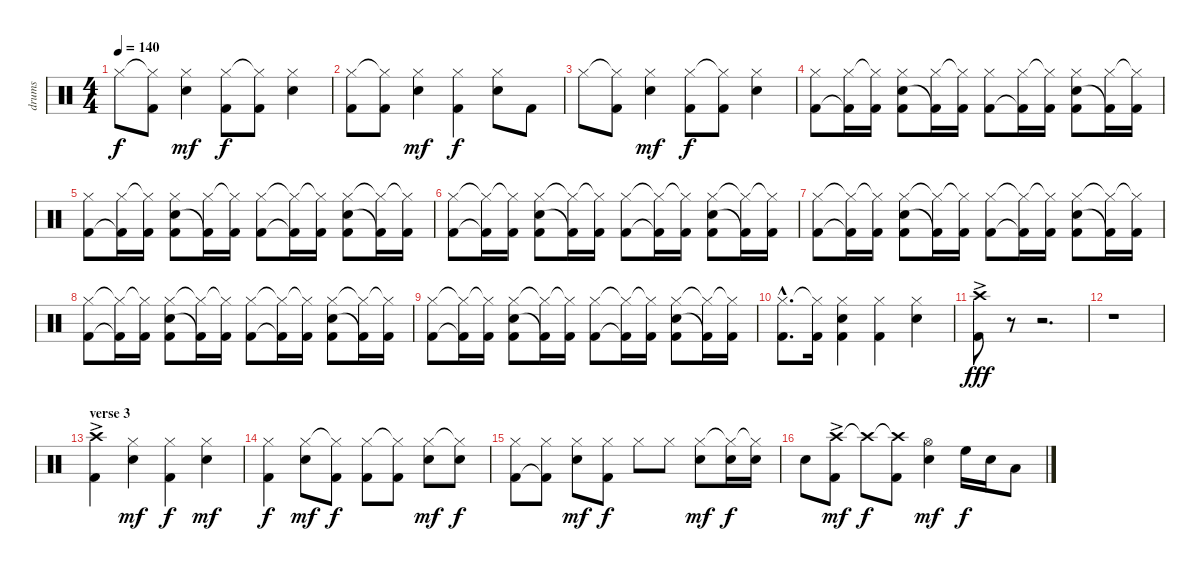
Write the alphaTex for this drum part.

\track ("drums" "drums") {instrument percussion}
\staff {score}
\articulation defaults
\ts (4 4)
\tempo 140
\clef neutral
\ks c "Hi-Hat (closed)".8{dy f}
("Hi-Hat (closed)"{t} "Kick (hit) 2").8 ("Hi-Hat (closed)" "Snare (hit) 2").4{dy mf} ("Hi-Hat (closed)" "Kick (hit) 2").8{dy f} ("Hi-Hat (closed)"{t} "Kick (hit) 2").8 ("Hi-Hat (closed)" "Snare (hit) 2").4 |
("Hi-Hat (closed)" "Kick (hit) 2").8 ("Hi-Hat (closed)"{t} "Kick (hit) 2").8 ("Hi-Hat (closed)" "Snare (hit) 2").4{dy mf} ("Hi-Hat (closed)" "Kick (hit) 2").4{dy f} ("Hi-Hat (closed)" "Snare (hit) 2").8 "Kick (hit) 2".8 |
"Hi-Hat (closed)".8 ("Hi-Hat (closed)"{t} "Kick (hit) 2").8 ("Hi-Hat (closed)" "Snare (hit) 2").4{dy mf} ("Hi-Hat (closed)" "Kick (hit) 2").8{dy f} ("Hi-Hat (closed)"{t} "Kick (hit) 2").8 ("Hi-Hat (closed)" "Snare (hit) 2").4 |
("Hi-Hat (closed)" "Kick (hit) 2").8 ("Hi-Hat (closed)" "Kick (hit) 2"{t}).16 ("Hi-Hat (closed)"{t} "Kick (hit) 2").16 ("Hi-Hat (closed)" "Snare (hit) 2" "Kick (hit) 2").8 ("Hi-Hat (closed)" "Kick (hit) 2"{t}).16 ("Hi-Hat (closed)"{t} "Kick (hit) 2").16 ("Hi-Hat (closed)" "Kick (hit) 2").8 ("Hi-Hat (closed)" "Kick (hit) 2"{t}).16 ("Hi-Hat (closed)"{t} "Kick (hit) 2").16 ("Hi-Hat (closed)" "Snare (hit) 2" "Kick (hit) 2").8 ("Hi-Hat (closed)" "Kick (hit) 2"{t}).16 ("Hi-Hat (closed)"{t} "Kick (hit) 2").16 |
("Hi-Hat (closed)" "Kick (hit) 2").8 ("Hi-Hat (closed)" "Kick (hit) 2"{t}).16 ("Hi-Hat (closed)"{t} "Kick (hit) 2").16 ("Hi-Hat (closed)" "Snare (hit) 2" "Kick (hit) 2").8 ("Hi-Hat (closed)" "Kick (hit) 2"{t}).16 ("Hi-Hat (closed)"{t} "Kick (hit) 2").16 ("Hi-Hat (closed)" "Kick (hit) 2").8 ("Hi-Hat (closed)"{t} "Kick (hit) 2"{t}).16 ("Hi-Hat (closed)"{t} "Kick (hit) 2").16 ("Hi-Hat (closed)" "Snare (hit) 2" "Kick (hit) 2").8 ("Hi-Hat (closed)"{t} "Kick (hit) 2"{t}).16 ("Hi-Hat (closed)"{t} "Kick (hit) 2").16 |
("Hi-Hat (closed)" "Kick (hit) 2").8 ("Hi-Hat (closed)"{t} "Kick (hit) 2"{t}).16 ("Hi-Hat (closed)"{t} "Kick (hit) 2").16 ("Hi-Hat (closed)" "Snare (hit) 2" "Kick (hit) 2").8 ("Hi-Hat (closed)"{t} "Kick (hit) 2"{t}).16 ("Hi-Hat (closed)"{t} "Kick (hit) 2").16 ("Hi-Hat (closed)" "Kick (hit) 2").8 ("Hi-Hat (closed)"{t} "Kick (hit) 2"{t}).16 ("Hi-Hat (closed)"{t} "Kick (hit) 2").16 ("Hi-Hat (closed)" "Snare (hit) 2" "Kick (hit) 2").8 ("Hi-Hat (closed)"{t} "Kick (hit) 2"{t}).16 ("Hi-Hat (closed)"{t} "Kick (hit) 2").16 |
("Hi-Hat (closed)" "Kick (hit) 2").8 ("Hi-Hat (closed)"{t} "Kick (hit) 2"{t}).16 ("Hi-Hat (closed)"{t} "Kick (hit) 2").16 ("Hi-Hat (closed)" "Snare (hit) 2" "Kick (hit) 2").8 ("Hi-Hat (closed)"{t} "Kick (hit) 2"{t}).16 ("Hi-Hat (closed)"{t} "Kick (hit) 2").16 ("Hi-Hat (closed)" "Kick (hit) 2").8 ("Hi-Hat (closed)"{t} "Kick (hit) 2"{t}).16 ("Hi-Hat (closed)"{t} "Kick (hit) 2").16 ("Hi-Hat (closed)" "Snare (hit) 2" "Kick (hit) 2").8 ("Hi-Hat (closed)"{t} "Kick (hit) 2"{t}).16 ("Hi-Hat (closed)"{t} "Kick (hit) 2").16 |
("Hi-Hat (closed)" "Kick (hit) 2").8 ("Hi-Hat (closed)"{t} "Kick (hit) 2"{t}).16 ("Hi-Hat (closed)"{t} "Kick (hit) 2").16 ("Hi-Hat (closed)" "Snare (hit) 2" "Kick (hit) 2").8 ("Hi-Hat (closed)"{t} "Kick (hit) 2"{t}).16 ("Hi-Hat (closed)"{t} "Kick (hit) 2").16 ("Hi-Hat (closed)" "Kick (hit) 2").8 ("Hi-Hat (closed)"{t} "Kick (hit) 2"{t}).16 ("Hi-Hat (closed)"{t} "Kick (hit) 2").16 ("Hi-Hat (closed)" "Snare (hit) 2" "Kick (hit) 2").8 ("Hi-Hat (closed)"{t} "Kick (hit) 2"{t}).16 ("Hi-Hat (closed)"{t} "Kick (hit) 2").16 |
("Hi-Hat (closed)" "Kick (hit) 2").8 ("Hi-Hat (closed)"{t} "Kick (hit) 2"{t}).16 ("Hi-Hat (closed)"{t} "Kick (hit) 2").16 ("Hi-Hat (closed)" "Snare (hit) 2" "Kick (hit) 2").8 ("Hi-Hat (closed)"{t} "Kick (hit) 2"{t}).16 ("Hi-Hat (closed)"{t} "Kick (hit) 2").16 ("Hi-Hat (closed)" "Kick (hit) 2").8 ("Hi-Hat (closed)"{t} "Kick (hit) 2"{t}).16 ("Hi-Hat (closed)"{t} "Kick (hit) 2").16 ("Hi-Hat (closed)" "Snare (hit) 2" "Kick (hit) 2").8 ("Hi-Hat (closed)"{t} "Kick (hit) 2"{t}).16 ("Hi-Hat (closed)"{t} "Kick (hit) 2").16 |
("Hi-Hat (closed)"{hac} "Kick (hit) 2"{hac}).8{d} ("Hi-Hat (closed)"{t} "Kick (hit) 2").16 ("Hi-Hat (closed)" "Kick (hit) 2" "Snare (hit) 2").4 ("Hi-Hat (closed)" "Kick (hit) 2").4 ("Hi-Hat (closed)" "Snare (hit) 2").4 |
("Crash high (hit)"{ac} "Kick (hit) 2").8{dy fff} r.8 r.2{d} |
r.1 |
\section ("" "verse 3")
("Kick (hit) 2" "Crash high (hit)"{ac}).4 ("Hi-Hat (closed)" "Snare (hit) 2").4{dy mf} ("Hi-Hat (closed)" "Kick (hit) 2").4{dy f} ("Hi-Hat (closed)" "Snare (hit) 2").4{dy mf} |
("Hi-Hat (closed)" "Kick (hit) 2").4{dy f} ("Hi-Hat (closed)" "Snare (hit) 2").8{dy mf} ("Hi-Hat (closed)"{t} "Kick (hit) 2").8{dy f} ("Hi-Hat (closed)" "Kick (hit) 2").8 ("Hi-Hat (closed)"{t} "Kick (hit) 2").8 ("Hi-Hat (closed)" "Snare (hit) 2").8{dy mf} ("Hi-Hat (closed)"{t} "Snare (hit) 2").8{dy f} |
("Hi-Hat (closed)" "Kick (hit) 2").8 ("Hi-Hat (closed)" "Kick (hit) 2"{t}).8 ("Hi-Hat (closed)" "Snare (hit) 2").8{dy mf} ("Hi-Hat (closed)" "Kick (hit) 2").8{dy f} "Hi-Hat (closed)".8 "Hi-Hat (closed)".8 ("Hi-Hat (closed)" "Snare (hit) 2").8{dy mf} ("Hi-Hat (closed)"{t} "Snare (hit) 2").16{dy f} ("Hi-Hat (closed)"{t} "Snare (hit) 2").16 |
"Snare (hit) 2".8 ("Crash high (hit)"{ac} "Kick (hit) 2").8{dy mf} "Crash high (hit)"{t}.8{dy f} ("Crash high (hit)"{t} "Kick (hit) 2").8 ("Hi-Hat (open)" "Snare (hit) 2").4{dy mf} "High Floor Tom (hit)".16{dy f} "Snare (hit) 2".16 "Low Tom (hit)".8
